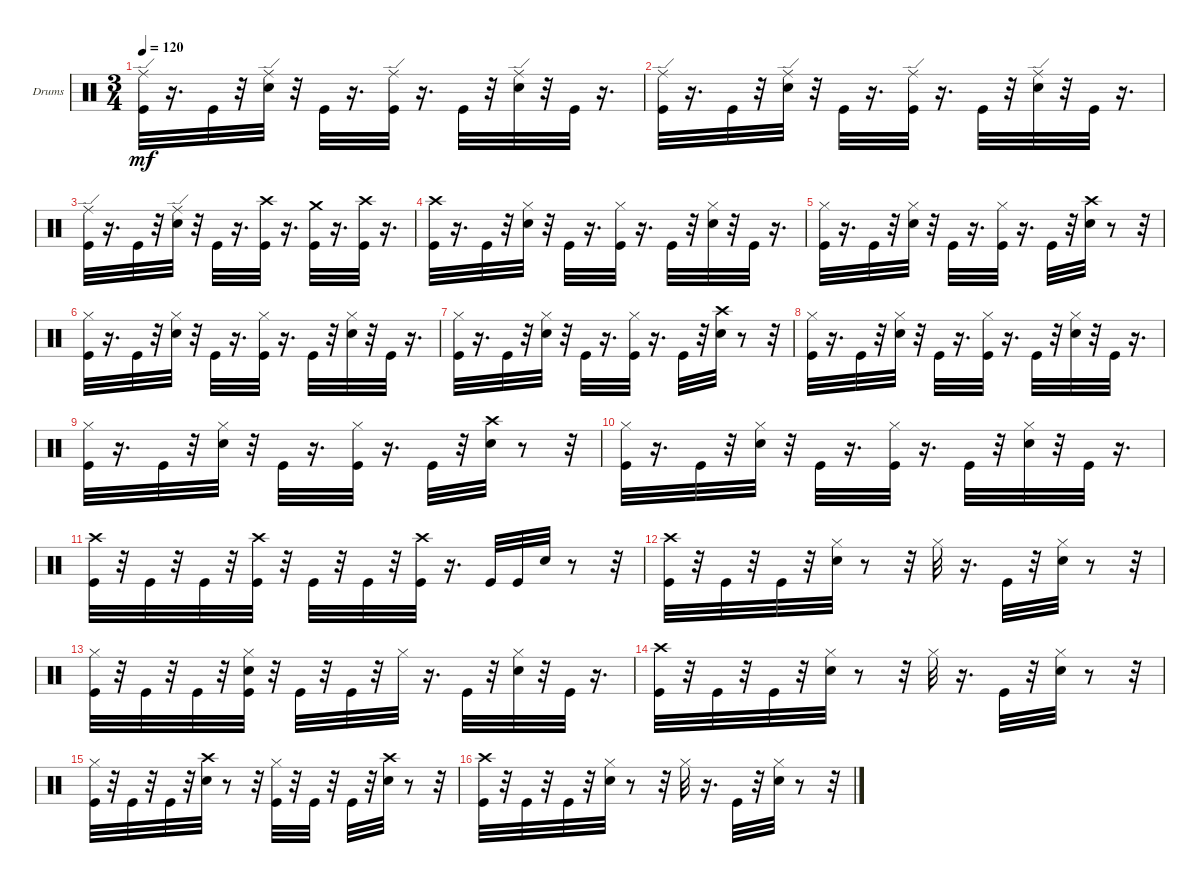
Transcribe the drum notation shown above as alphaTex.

\bracketExtendMode groupsimilarinstruments
\firstSystemTrackNameOrientation horizontal
\otherSystemsTrackNameOrientation horizontal
\track ("" "Drums") {instrument percussion}
\staff {score}
\articulation defaults
\ts (3 4)
\tempo 120
\clef neutral
\ks c
("Ride (edge)" "Kick (hit)").32{dy mf} r.16{d} "Kick (hit)".32 r.32 ("Snare (hit) 2" "Ride (edge)").32 r.32 "Kick (hit)".32 r.16{d} ("Kick (hit)" "Ride (edge)").32 r.16{d} "Kick (hit)".32 r.32 ("Snare (hit) 2" "Ride (edge)").32 r.32 "Kick (hit)".32 r.16{d} |
("Ride (edge)" "Kick (hit)").32 r.16{d} "Kick (hit)".32 r.32 ("Snare (hit) 2" "Ride (edge)").32 r.32 "Kick (hit)".32 r.16{d} ("Kick (hit)" "Ride (edge)").32 r.16{d} "Kick (hit)".32 r.32 ("Snare (hit) 2" "Ride (edge)").32 r.32 "Kick (hit)".32 r.16{d} |
("Ride (edge)" "Kick (hit)").32 r.16{d} "Kick (hit)".32 r.32 ("Snare (hit) 2" "Ride (edge)").32 r.32 "Kick (hit)".32 r.16{d} ("Crash high (hit)" "Kick (hit)").32 r.16{d} ("Crash medium (hit)" "Kick (hit)").32 r.16{d} ("Crash high (hit)" "Kick (hit)").32 r.16{d} |
("Crash high (hit)" "Kick (hit)").32 r.16{d} "Kick (hit)".32 r.32 ("Snare (hit) 2" "Hi-Hat (closed)").32 r.32 "Kick (hit)".32 r.16{d} ("Hi-Hat (closed)" "Kick (hit)").32 r.16{d} "Kick (hit)".32 r.32 ("Hi-Hat (closed)" "Snare (hit) 2").32 r.32 "Kick (hit)".32 r.16{d} |
("Hi-Hat (closed)" "Kick (hit)").32 r.16{d} "Kick (hit)".32 r.32 ("Snare (hit) 2" "Hi-Hat (closed)").32 r.32 "Kick (hit)".32 r.16{d} ("Hi-Hat (closed)" "Kick (hit)").32 r.16{d} "Kick (hit)".32 r.32 ("Crash high (hit)" "Snare (hit) 2").32 r.8 r.32 |
("Hi-Hat (closed)" "Kick (hit)").32 r.16{d} "Kick (hit)".32 r.32 ("Snare (hit) 2" "Hi-Hat (closed)").32 r.32 "Kick (hit)".32 r.16{d} ("Hi-Hat (closed)" "Kick (hit)").32 r.16{d} "Kick (hit)".32 r.32 ("Hi-Hat (closed)" "Snare (hit) 2").32 r.32 "Kick (hit)".32 r.16{d} |
("Hi-Hat (closed)" "Kick (hit)").32 r.16{d} "Kick (hit)".32 r.32 ("Snare (hit) 2" "Hi-Hat (closed)").32 r.32 "Kick (hit)".32 r.16{d} ("Hi-Hat (closed)" "Kick (hit)").32 r.16{d} "Kick (hit)".32 r.32 ("Crash high (hit)" "Snare (hit) 2").32 r.8 r.32 |
("Hi-Hat (closed)" "Kick (hit)").32 r.16{d} "Kick (hit)".32 r.32 ("Snare (hit) 2" "Hi-Hat (closed)").32 r.32 "Kick (hit)".32 r.16{d} ("Hi-Hat (closed)" "Kick (hit)").32 r.16{d} "Kick (hit)".32 r.32 ("Hi-Hat (closed)" "Snare (hit) 2").32 r.32 "Kick (hit)".32 r.16{d} |
("Hi-Hat (closed)" "Kick (hit)").32 r.16{d} "Kick (hit)".32 r.32 ("Snare (hit) 2" "Hi-Hat (closed)").32 r.32 "Kick (hit)".32 r.16{d} ("Hi-Hat (closed)" "Kick (hit)").32 r.16{d} "Kick (hit)".32 r.32 ("Crash high (hit)" "Snare (hit) 2").32 r.8 r.32 |
("Hi-Hat (closed)" "Kick (hit)").32 r.16{d} "Kick (hit)".32 r.32 ("Snare (hit) 2" "Hi-Hat (closed)").32 r.32 "Kick (hit)".32 r.16{d} ("Hi-Hat (closed)" "Kick (hit)").32 r.16{d} "Kick (hit)".32 r.32 ("Hi-Hat (closed)" "Snare (hit) 2").32 r.32 "Kick (hit)".32 r.16{d} |
("Crash high (hit)" "Kick (hit)").32 r.32 "Kick (hit)".32 r.32 "Kick (hit)".32 r.32 ("Crash high (hit)" "Kick (hit)").32 r.32 "Kick (hit)".32 r.32 "Kick (hit)".32 r.32 ("Kick (hit)" "Crash high (hit)").32 r.16{d} "Kick (hit)".32 "Kick (hit)".32 "Snare (hit) 2".32 r.8 r.32 |
("Crash high (hit)" "Kick (hit)").32 r.32 "Kick (hit)".32 r.32 "Kick (hit)".32 r.32 ("Hi-Hat (closed)" "Snare (hit) 2").32 r.8 r.32 "Hi-Hat (closed)".32 r.16{d} "Kick (hit)".32 r.32 ("Hi-Hat (closed)" "Snare (hit) 2").32 r.8 r.32 |
("Kick (hit)" "Hi-Hat (closed)").32 r.32 "Kick (hit)".32 r.32 "Kick (hit)".32 r.32 ("Kick (hit)" "Snare (hit) 2" "Hi-Hat (closed)").32 r.32 "Kick (hit)".32 r.32 "Kick (hit)".32 r.32 "Hi-Hat (closed)".32 r.16{d} "Kick (hit)".32 r.32 ("Snare (hit) 2" "Hi-Hat (closed)").32 r.32 "Kick (hit)".32 r.16{d} |
("Crash high (hit)" "Kick (hit)").32 r.32 "Kick (hit)".32 r.32 "Kick (hit)".32 r.32 ("Hi-Hat (closed)" "Snare (hit) 2").32 r.8 r.32 "Hi-Hat (closed)".32 r.16{d} "Kick (hit)".32 r.32 ("Hi-Hat (closed)" "Snare (hit) 2").32 r.8 r.32 |
("Kick (hit)" "Hi-Hat (closed)").32 r.32 "Kick (hit)".32 r.32 "Kick (hit)".32 r.32 ("Crash high (hit)" "Snare (hit) 2").32 r.8 r.32 ("Kick (hit)" "Hi-Hat (closed)").32 r.32 "Kick (hit)".32 r.32 "Kick (hit)".32 r.32 ("Crash high (hit)" "Snare (hit) 2").32 r.8 r.32 |
("Crash high (hit)" "Kick (hit)").32 r.32 "Kick (hit)".32 r.32 "Kick (hit)".32 r.32 ("Hi-Hat (closed)" "Snare (hit) 2").32 r.8 r.32 "Hi-Hat (closed)".32 r.16{d} "Kick (hit)".32 r.32 ("Hi-Hat (closed)" "Snare (hit) 2").32 r.8 r.32
